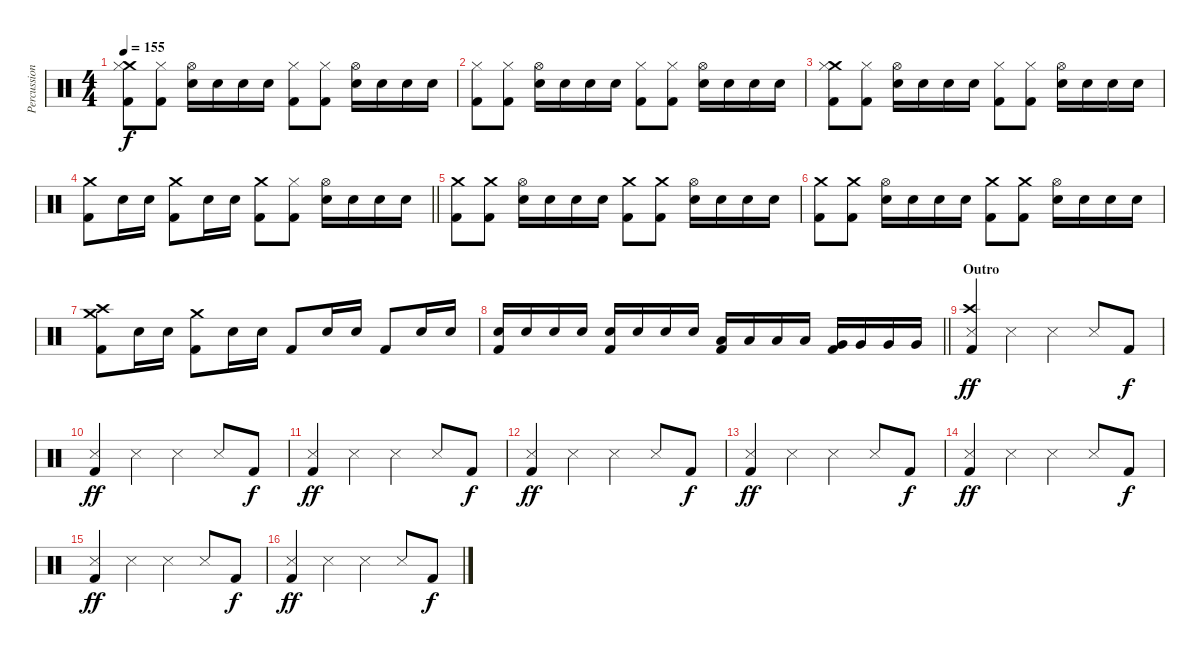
\track ("Percussion" "Percussion") {instrument percussion}
\staff {score}
\articulation defaults
\ts (4 4)
\tempo 155
\clef neutral
\ks c
("Crash medium (hit)" "Hi-Hat (closed)" "Kick (hit) 2").8{dy f} ("Hi-Hat (closed)" "Kick (hit) 2").8 ("Hi-Hat (open)" "Electric Snare (hit)").16 "Electric Snare (hit)".16 "Electric Snare (hit)".16 "Electric Snare (hit)".16 ("Hi-Hat (closed)" "Kick (hit) 2").8 ("Hi-Hat (closed)" "Kick (hit) 2").8 ("Hi-Hat (open)" "Electric Snare (hit)").16 "Electric Snare (hit)".16 "Electric Snare (hit)".16 "Electric Snare (hit)".16 |
("Hi-Hat (closed)" "Kick (hit) 2").8 ("Hi-Hat (closed)" "Kick (hit) 2").8 ("Hi-Hat (open)" "Electric Snare (hit)").16 "Electric Snare (hit)".16 "Electric Snare (hit)".16 "Electric Snare (hit)".16 ("Hi-Hat (closed)" "Kick (hit) 2").8 ("Hi-Hat (closed)" "Kick (hit) 2").8 ("Hi-Hat (open)" "Electric Snare (hit)").16 "Electric Snare (hit)".16 "Electric Snare (hit)".16 "Electric Snare (hit)".16 |
("Crash medium (hit)" "Hi-Hat (closed)" "Kick (hit) 2").8 ("Hi-Hat (closed)" "Kick (hit) 2").8 ("Hi-Hat (open)" "Electric Snare (hit)").16 "Electric Snare (hit)".16 "Electric Snare (hit)".16 "Electric Snare (hit)".16 ("Hi-Hat (closed)" "Kick (hit) 2").8 ("Hi-Hat (closed)" "Kick (hit) 2").8 ("Hi-Hat (open)" "Electric Snare (hit)").16 "Electric Snare (hit)".16 "Electric Snare (hit)".16 "Electric Snare (hit)".16 |
\barLineRight lightlight
("Crash medium (hit)" "Kick (hit) 2").8 "Electric Snare (hit)".16 "Electric Snare (hit)".16 ("Crash medium (hit)" "Kick (hit) 2").8 "Electric Snare (hit)".16 "Electric Snare (hit)".16 ("Crash medium (hit)" "Kick (hit) 2").8 ("Hi-Hat (closed)" "Kick (hit) 2").8 ("Hi-Hat (open)" "Electric Snare (hit)").16 "Electric Snare (hit)".16 "Electric Snare (hit)".16 "Electric Snare (hit)".16 |
("Crash medium (hit)" "Kick (hit) 2").8 ("Crash medium (hit)" "Kick (hit) 2").8 ("Hi-Hat (open)" "Electric Snare (hit)").16 "Electric Snare (hit)".16 "Electric Snare (hit)".16 "Electric Snare (hit)".16 ("Crash medium (hit)" "Kick (hit) 2").8 ("Crash medium (hit)" "Kick (hit) 2").8 ("Hi-Hat (open)" "Electric Snare (hit)").16 "Electric Snare (hit)".16 "Electric Snare (hit)".16 "Electric Snare (hit)".16 |
("Crash medium (hit)" "Kick (hit) 2").8 ("Crash medium (hit)" "Kick (hit) 2").8 ("Hi-Hat (open)" "Electric Snare (hit)").16 "Electric Snare (hit)".16 "Electric Snare (hit)".16 "Electric Snare (hit)".16 ("Crash medium (hit)" "Kick (hit) 2").8 ("Crash medium (hit)" "Kick (hit) 2").8 ("Hi-Hat (open)" "Electric Snare (hit)").16 "Electric Snare (hit)".16 "Electric Snare (hit)".16 "Electric Snare (hit)".16 |
("Crash medium (hit)" "Crash high (hit)" "Kick (hit) 2").8 "Electric Snare (hit)".16 "Electric Snare (hit)".16 ("Crash medium (hit)" "Kick (hit) 2").8 "Electric Snare (hit)".16 "Electric Snare (hit)".16 "Kick (hit) 2".8 "Electric Snare (hit)".16 "Electric Snare (hit)".16 "Kick (hit) 2".8 "Electric Snare (hit)".16 "Electric Snare (hit)".16 |
\barLineRight lightlight
("Electric Snare (hit)" "Kick (hit) 2").16 "Electric Snare (hit)".16 "Electric Snare (hit)".16 "Electric Snare (hit)".16 ("Electric Snare (hit)" "Kick (hit) 2").16 "Electric Snare (hit)".16 "Electric Snare (hit)".16 "Electric Snare (hit)".16 ("Low Tom (hit)" "Kick (hit) 2").16 "Low Tom (hit)".16 "Low Tom (hit)".16 "Low Tom (hit)".16 ("Very Low Tom (hit)" "Kick (hit) 2").16 "Very Low Tom (hit)".16 "Very Low Tom (hit)".16 "Very Low Tom (hit)".16 |
\section ("" "Outro")
("Crash high (hit)" "Snare (side stick) 3" "Kick (hit) 2").4{dy ff} "Snare (side stick) 3".4 "Snare (side stick) 3".4 "Snare (side stick) 3".8 "Kick (hit) 2".8{dy f} |
("Snare (side stick) 3" "Kick (hit) 2").4{dy ff} "Snare (side stick) 3".4 "Snare (side stick) 3".4 "Snare (side stick) 3".8 "Kick (hit) 2".8{dy f} |
("Snare (side stick) 3" "Kick (hit) 2").4{dy ff} "Snare (side stick) 3".4 "Snare (side stick) 3".4 "Snare (side stick) 3".8 "Kick (hit) 2".8{dy f} |
("Snare (side stick) 3" "Kick (hit) 2").4{dy ff} "Snare (side stick) 3".4 "Snare (side stick) 3".4 "Snare (side stick) 3".8 "Kick (hit) 2".8{dy f} |
("Snare (side stick) 3" "Kick (hit) 2").4{dy ff} "Snare (side stick) 3".4 "Snare (side stick) 3".4 "Snare (side stick) 3".8 "Kick (hit) 2".8{dy f} |
("Snare (side stick) 3" "Kick (hit) 2").4{dy ff} "Snare (side stick) 3".4 "Snare (side stick) 3".4 "Snare (side stick) 3".8 "Kick (hit) 2".8{dy f} |
("Snare (side stick) 3" "Kick (hit) 2").4{dy ff} "Snare (side stick) 3".4 "Snare (side stick) 3".4 "Snare (side stick) 3".8 "Kick (hit) 2".8{dy f} |
("Snare (side stick) 3" "Kick (hit) 2").4{dy ff} "Snare (side stick) 3".4 "Snare (side stick) 3".4 "Snare (side stick) 3".8 "Kick (hit) 2".8{dy f}
